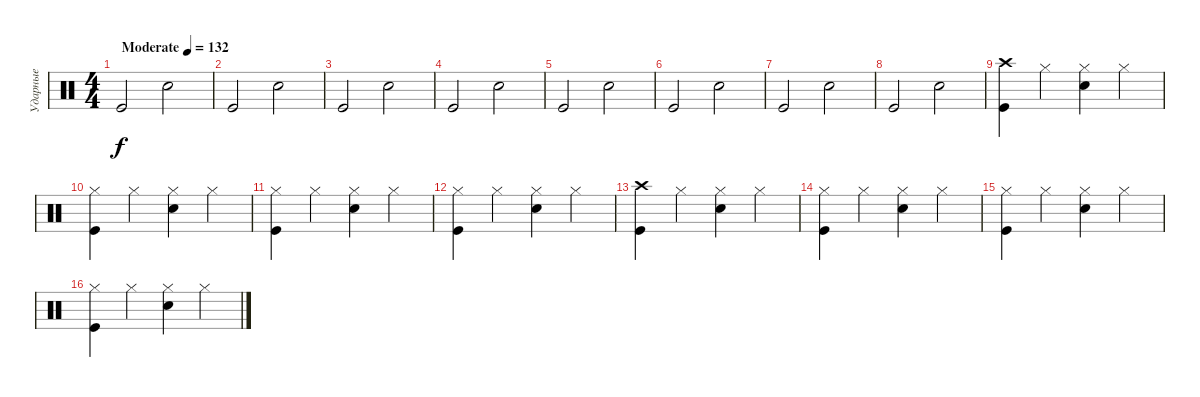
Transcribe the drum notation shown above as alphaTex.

\track ("Ударные" "Ударные") {instrument percussion}
\staff {score}
\articulation defaults
\ts (4 4)
\tempo (132 "Moderate")
\clef neutral
\ks c "Kick (hit)".2{dy f} "Snare (hit) 2".2
|
"Kick (hit)".2 "Snare (hit) 2".2 |
"Kick (hit)".2 "Snare (hit) 2".2 |
"Kick (hit)".2 "Snare (hit) 2".2 |
"Kick (hit)".2 "Snare (hit) 2".2 |
"Kick (hit)".2 "Snare (hit) 2".2 |
"Kick (hit)".2 "Snare (hit) 2".2 |
"Kick (hit)".2 "Snare (hit) 2".2 |
("Crash high (hit)" "Kick (hit)").4 "Hi-Hat (closed)".4 ("Hi-Hat (closed)" "Snare (hit) 2").4 "Hi-Hat (closed)".4 |
("Hi-Hat (closed)" "Kick (hit)").4 "Hi-Hat (closed)".4 ("Hi-Hat (closed)" "Snare (hit) 2").4 "Hi-Hat (closed)".4 |
("Hi-Hat (closed)" "Kick (hit)").4 "Hi-Hat (closed)".4 ("Hi-Hat (closed)" "Snare (hit) 2").4 "Hi-Hat (closed)".4 |
("Hi-Hat (closed)" "Kick (hit)").4 "Hi-Hat (closed)".4 ("Hi-Hat (closed)" "Snare (hit) 2").4 "Hi-Hat (closed)".4 |
("Crash high (hit)" "Kick (hit)").4 "Hi-Hat (closed)".4 ("Hi-Hat (closed)" "Snare (hit) 2").4 "Hi-Hat (closed)".4 |
("Hi-Hat (closed)" "Kick (hit)").4 "Hi-Hat (closed)".4 ("Hi-Hat (closed)" "Snare (hit) 2").4 "Hi-Hat (closed)".4 |
("Hi-Hat (closed)" "Kick (hit)").4 "Hi-Hat (closed)".4 ("Hi-Hat (closed)" "Snare (hit) 2").4 "Hi-Hat (closed)".4 |
("Hi-Hat (closed)" "Kick (hit)").4 "Hi-Hat (closed)".4 ("Hi-Hat (closed)" "Snare (hit) 2").4 "Hi-Hat (closed)".4
